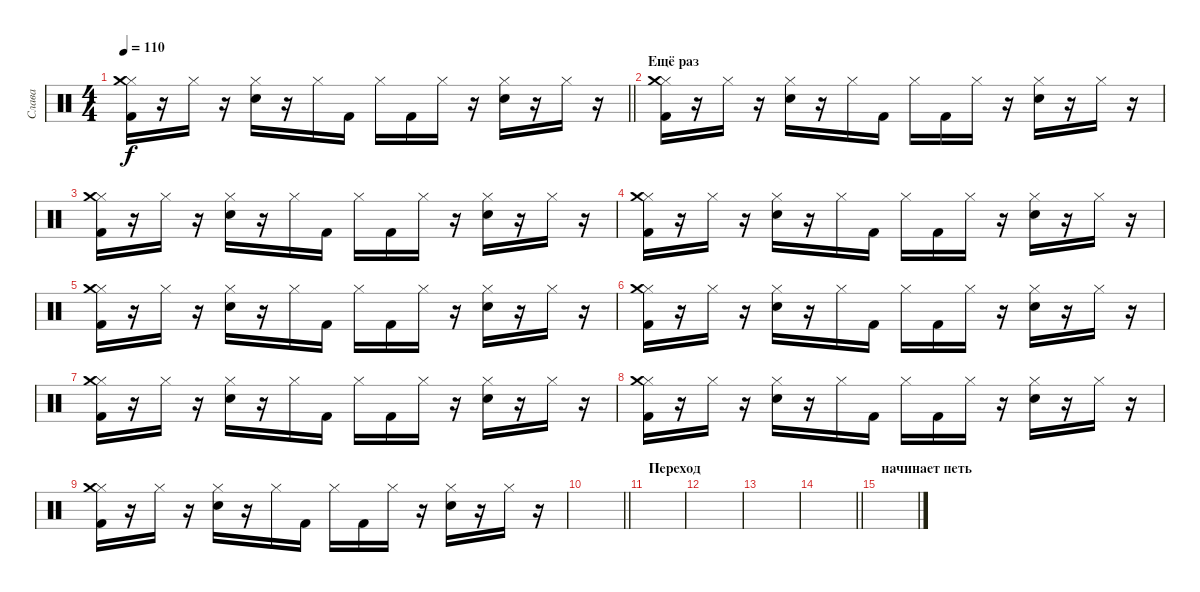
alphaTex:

\track ("Слава" "Слава") {instrument percussion}
\staff {score}
\articulation defaults
\ts (4 4)
\tempo 110
\clef neutral
\barLineRight lightlight
\ks c
("Hi-Hat (closed)" "Crash medium (hit)" "Kick (hit) 2").16{dy f} r.16 "Hi-Hat (closed)".16 r.16 ("Hi-Hat (closed)" "Electric Snare (hit)").16 r.16 "Hi-Hat (closed)".16 "Kick (hit) 2".16 "Hi-Hat (closed)".16 "Kick (hit) 2".16 "Hi-Hat (closed)".16 r.16 ("Hi-Hat (closed)" "Electric Snare (hit)").16 r.16 "Hi-Hat (closed)".16 r.16 |
\section ("" "Ещё раз")
("Hi-Hat (closed)" "Crash medium (hit)" "Kick (hit) 2").16 r.16 "Hi-Hat (closed)".16 r.16 ("Hi-Hat (closed)" "Electric Snare (hit)").16 r.16 "Hi-Hat (closed)".16 "Kick (hit) 2".16 "Hi-Hat (closed)".16 "Kick (hit) 2".16 "Hi-Hat (closed)".16 r.16 ("Hi-Hat (closed)" "Electric Snare (hit)").16 r.16 "Hi-Hat (closed)".16 r.16 |
("Hi-Hat (closed)" "Crash medium (hit)" "Kick (hit) 2").16 r.16 "Hi-Hat (closed)".16 r.16 ("Hi-Hat (closed)" "Electric Snare (hit)").16 r.16 "Hi-Hat (closed)".16 "Kick (hit) 2".16 "Hi-Hat (closed)".16 "Kick (hit) 2".16 "Hi-Hat (closed)".16 r.16 ("Hi-Hat (closed)" "Electric Snare (hit)").16 r.16 "Hi-Hat (closed)".16 r.16 |
("Hi-Hat (closed)" "Crash medium (hit)" "Kick (hit) 2").16 r.16 "Hi-Hat (closed)".16 r.16 ("Hi-Hat (closed)" "Electric Snare (hit)").16 r.16 "Hi-Hat (closed)".16 "Kick (hit) 2".16 "Hi-Hat (closed)".16 "Kick (hit) 2".16 "Hi-Hat (closed)".16 r.16 ("Hi-Hat (closed)" "Electric Snare (hit)").16 r.16 "Hi-Hat (closed)".16 r.16 |
("Hi-Hat (closed)" "Crash medium (hit)" "Kick (hit) 2").16 r.16 "Hi-Hat (closed)".16 r.16 ("Hi-Hat (closed)" "Electric Snare (hit)").16 r.16 "Hi-Hat (closed)".16 "Kick (hit) 2".16 "Hi-Hat (closed)".16 "Kick (hit) 2".16 "Hi-Hat (closed)".16 r.16 ("Hi-Hat (closed)" "Electric Snare (hit)").16 r.16 "Hi-Hat (closed)".16 r.16 |
("Hi-Hat (closed)" "Crash medium (hit)" "Kick (hit) 2").16 r.16 "Hi-Hat (closed)".16 r.16 ("Hi-Hat (closed)" "Electric Snare (hit)").16 r.16 "Hi-Hat (closed)".16 "Kick (hit) 2".16 "Hi-Hat (closed)".16 "Kick (hit) 2".16 "Hi-Hat (closed)".16 r.16 ("Hi-Hat (closed)" "Electric Snare (hit)").16 r.16 "Hi-Hat (closed)".16 r.16 |
("Hi-Hat (closed)" "Crash medium (hit)" "Kick (hit) 2").16 r.16 "Hi-Hat (closed)".16 r.16 ("Hi-Hat (closed)" "Electric Snare (hit)").16 r.16 "Hi-Hat (closed)".16 "Kick (hit) 2".16 "Hi-Hat (closed)".16 "Kick (hit) 2".16 "Hi-Hat (closed)".16 r.16 ("Hi-Hat (closed)" "Electric Snare (hit)").16 r.16 "Hi-Hat (closed)".16 r.16 |
("Hi-Hat (closed)" "Crash medium (hit)" "Kick (hit) 2").16 r.16 "Hi-Hat (closed)".16 r.16 ("Hi-Hat (closed)" "Electric Snare (hit)").16 r.16 "Hi-Hat (closed)".16 "Kick (hit) 2".16 "Hi-Hat (closed)".16 "Kick (hit) 2".16 "Hi-Hat (closed)".16 r.16 ("Hi-Hat (closed)" "Electric Snare (hit)").16 r.16 "Hi-Hat (closed)".16 r.16 |
("Hi-Hat (closed)" "Crash medium (hit)" "Kick (hit) 2").16 r.16 "Hi-Hat (closed)".16 r.16 ("Hi-Hat (closed)" "Electric Snare (hit)").16 r.16 "Hi-Hat (closed)".16 "Kick (hit) 2".16 "Hi-Hat (closed)".16 "Kick (hit) 2".16 "Hi-Hat (closed)".16 r.16 ("Hi-Hat (closed)" "Electric Snare (hit)").16 r.16 "Hi-Hat (closed)".16 r.16 |
\barLineRight lightlight
|
\section ("" "Переход")
|
|
|
\barLineRight lightlight
|
\section ("" "начинает петь")
